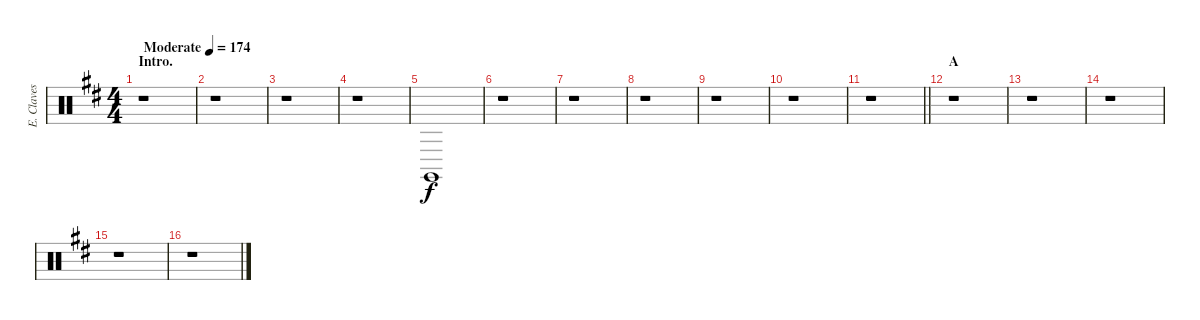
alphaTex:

\track ("E. Claves" "E. Claves") {instrument percussion}
\staff {score}
\articulation defaults
\ts (4 4)
\section ("" "Intro.")
\tempo (174 "Moderate")
\clef neutral
\ks bminor
r.1{dy f} |
r.1 |
r.1 |
r.1 |
"Claves (hit)".1 |
r.1 |
r.1 |
r.1 |
r.1 |
r.1 |
\barLineRight lightlight
r.1 |
\section ("" "A")
r.1 |
r.1 |
r.1 |
r.1 |
r.1
